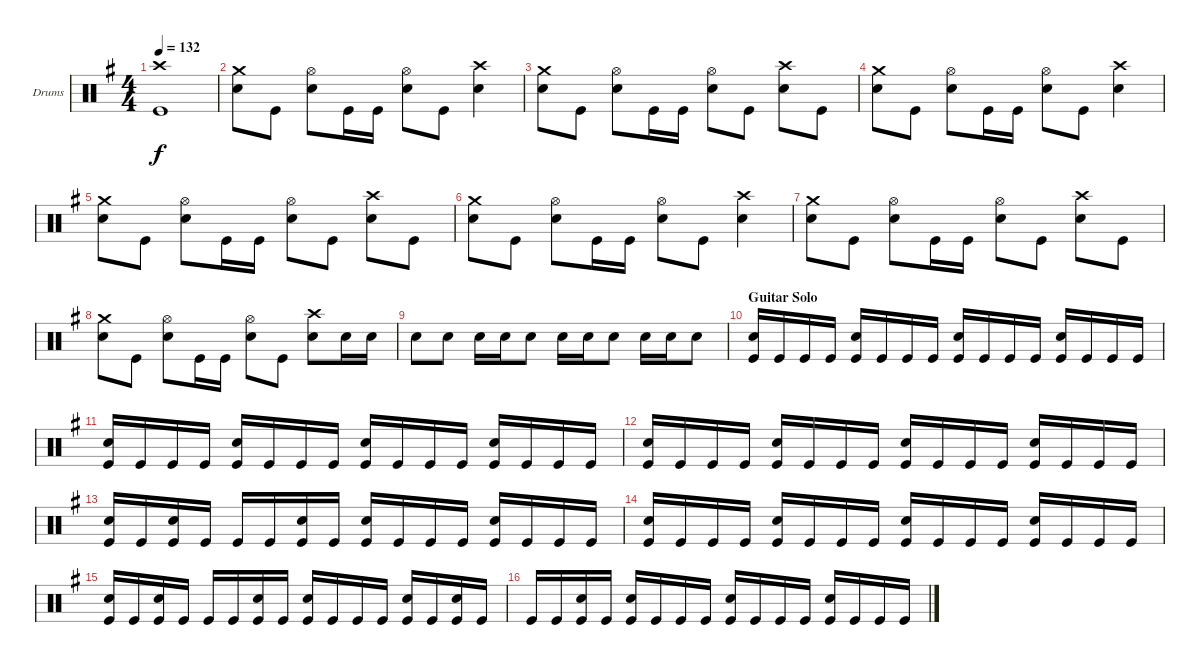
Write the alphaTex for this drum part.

\bracketExtendMode groupsimilarinstruments
\firstSystemTrackNameOrientation horizontal
\otherSystemsTrackNameOrientation horizontal
\track ("Drumkit" "Drums") {instrument percussion}
\staff {score}
\articulation defaults
\ts (4 4)
\tempo 132
\clef neutral
\ks g
("Crash high (hit)" "Kick (hit)").1{dy f} |
("Crash medium (hit)" "Snare (hit) 2").8 "Kick (hit)".8 ("Hi-Hat (open)" "Snare (hit) 2").8 "Kick (hit)".16 "Kick (hit)".16 ("Hi-Hat (open)" "Snare (hit) 2").8 "Kick (hit)".8 ("Crash high (hit)" "Snare (hit) 2").4 |
("Crash medium (hit)" "Snare (hit) 2").8 "Kick (hit)".8 ("Hi-Hat (open)" "Snare (hit) 2").8 "Kick (hit)".16 "Kick (hit)".16 ("Hi-Hat (open)" "Snare (hit) 2").8 "Kick (hit)".8 ("Crash high (hit)" "Snare (hit) 2").8 "Kick (hit)".8 |
("Crash medium (hit)" "Snare (hit) 2").8 "Kick (hit)".8 ("Hi-Hat (open)" "Snare (hit) 2").8 "Kick (hit)".16 "Kick (hit)".16 ("Hi-Hat (open)" "Snare (hit) 2").8 "Kick (hit)".8 ("Crash high (hit)" "Snare (hit) 2").4 |
("Crash medium (hit)" "Snare (hit) 2").8 "Kick (hit)".8 ("Hi-Hat (open)" "Snare (hit) 2").8 "Kick (hit)".16 "Kick (hit)".16 ("Hi-Hat (open)" "Snare (hit) 2").8 "Kick (hit)".8 ("Crash high (hit)" "Snare (hit) 2").8 "Kick (hit)".8 |
("Crash medium (hit)" "Snare (hit) 2").8 "Kick (hit)".8 ("Hi-Hat (open)" "Snare (hit) 2").8 "Kick (hit)".16 "Kick (hit)".16 ("Hi-Hat (open)" "Snare (hit) 2").8 "Kick (hit)".8 ("Crash high (hit)" "Snare (hit) 2").4 |
("Crash medium (hit)" "Snare (hit) 2").8 "Kick (hit)".8 ("Hi-Hat (open)" "Snare (hit) 2").8 "Kick (hit)".16 "Kick (hit)".16 ("Hi-Hat (open)" "Snare (hit) 2").8 "Kick (hit)".8 ("Crash high (hit)" "Snare (hit) 2").8 "Kick (hit)".8 |
("Crash medium (hit)" "Snare (hit) 2").8 "Kick (hit)".8 ("Hi-Hat (open)" "Snare (hit) 2").8 "Kick (hit)".16 "Kick (hit)".16 ("Hi-Hat (open)" "Snare (hit) 2").8 "Kick (hit)".8 ("Crash high (hit)" "Snare (hit) 2").8 "Snare (hit) 2".16 "Snare (hit) 2".16 |
"Snare (hit) 2".8 "Snare (hit) 2".8 "Snare (hit) 2".16 "Snare (hit) 2".16 "Snare (hit) 2".8 "Snare (hit) 2".16 "Snare (hit) 2".16 "Snare (hit) 2".8 "Snare (hit) 2".16 "Snare (hit) 2".16 "Snare (hit) 2".8 |
\section ("" "Guitar Solo")
("Snare (hit) 2" "Kick (hit)").16 "Kick (hit)".16 "Kick (hit)".16 "Kick (hit)".16 ("Snare (hit) 2" "Kick (hit)").16 "Kick (hit)".16 "Kick (hit)".16 "Kick (hit)".16 ("Snare (hit) 2" "Kick (hit)").16 "Kick (hit)".16 "Kick (hit)".16 "Kick (hit)".16 ("Snare (hit) 2" "Kick (hit)").16 "Kick (hit)".16 "Kick (hit)".16 "Kick (hit)".16 |
("Snare (hit) 2" "Kick (hit)").16 "Kick (hit)".16 "Kick (hit)".16 "Kick (hit)".16 ("Snare (hit) 2" "Kick (hit)").16 "Kick (hit)".16 "Kick (hit)".16 "Kick (hit)".16 ("Snare (hit) 2" "Kick (hit)").16 "Kick (hit)".16 "Kick (hit)".16 "Kick (hit)".16 ("Snare (hit) 2" "Kick (hit)").16 "Kick (hit)".16 "Kick (hit)".16 "Kick (hit)".16 |
("Snare (hit) 2" "Kick (hit)").16 "Kick (hit)".16 "Kick (hit)".16 "Kick (hit)".16 ("Snare (hit) 2" "Kick (hit)").16 "Kick (hit)".16 "Kick (hit)".16 "Kick (hit)".16 ("Snare (hit) 2" "Kick (hit)").16 "Kick (hit)".16 "Kick (hit)".16 "Kick (hit)".16 ("Snare (hit) 2" "Kick (hit)").16 "Kick (hit)".16 "Kick (hit)".16 "Kick (hit)".16 |
("Snare (hit) 2" "Kick (hit)").16 "Kick (hit)".16 ("Snare (hit) 2" "Kick (hit)").16 "Kick (hit)".16 "Kick (hit)".16 "Kick (hit)".16 ("Snare (hit) 2" "Kick (hit)").16 "Kick (hit)".16 ("Snare (hit) 2" "Kick (hit)").16 "Kick (hit)".16 "Kick (hit)".16 "Kick (hit)".16 ("Snare (hit) 2" "Kick (hit)").16 "Kick (hit)".16 "Kick (hit)".16 "Kick (hit)".16 |
("Snare (hit) 2" "Kick (hit)").16 "Kick (hit)".16 "Kick (hit)".16 "Kick (hit)".16 ("Snare (hit) 2" "Kick (hit)").16 "Kick (hit)".16 "Kick (hit)".16 "Kick (hit)".16 ("Snare (hit) 2" "Kick (hit)").16 "Kick (hit)".16 "Kick (hit)".16 "Kick (hit)".16 ("Snare (hit) 2" "Kick (hit)").16 "Kick (hit)".16 "Kick (hit)".16 "Kick (hit)".16 |
("Snare (hit) 2" "Kick (hit)").16 "Kick (hit)".16 ("Snare (hit) 2" "Kick (hit)").16 "Kick (hit)".16 "Kick (hit)".16 "Kick (hit)".16 ("Snare (hit) 2" "Kick (hit)").16 "Kick (hit)".16 ("Snare (hit) 2" "Kick (hit)").16 "Kick (hit)".16 "Kick (hit)".16 "Kick (hit)".16 ("Snare (hit) 2" "Kick (hit)").16 "Kick (hit)".16 ("Snare (hit) 2" "Kick (hit)").16 "Kick (hit)".16 |
"Kick (hit)".16 "Kick (hit)".16 ("Snare (hit) 2" "Kick (hit)").16 "Kick (hit)".16 ("Snare (hit) 2" "Kick (hit)").16 "Kick (hit)".16 "Kick (hit)".16 "Kick (hit)".16 ("Snare (hit) 2" "Kick (hit)").16 "Kick (hit)".16 "Kick (hit)".16 "Kick (hit)".16 ("Snare (hit) 2" "Kick (hit)").16 "Kick (hit)".16 "Kick (hit)".16 "Kick (hit)".16
